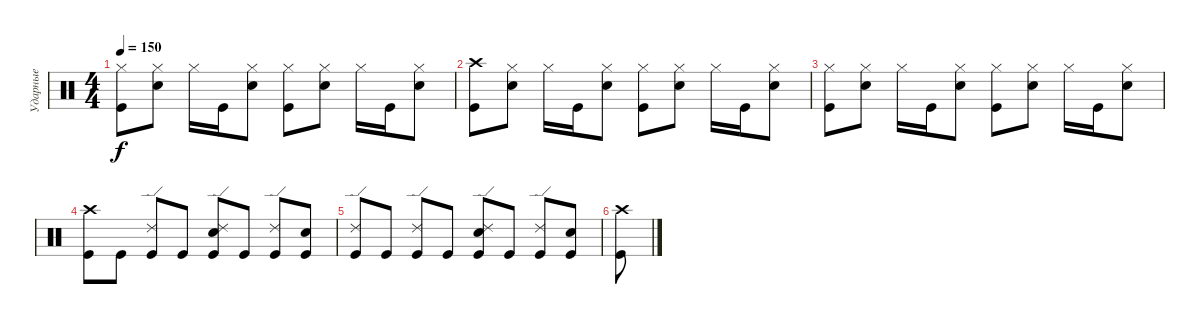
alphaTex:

\track ("Ударные" "Ударные") {instrument percussion}
\staff {score}
\articulation defaults
\ts (4 4)
\tempo 150
\clef neutral
\ks c
("Hi-Hat (closed)" "Kick (hit)").8{dy f} ("Hi-Hat (closed)" "Snare (hit) 2").8 "Hi-Hat (closed)".16 "Kick (hit)".16 ("Hi-Hat (closed)" "Snare (hit) 2").8 ("Hi-Hat (closed)" "Kick (hit)").8 ("Hi-Hat (closed)" "Snare (hit) 2").8 "Hi-Hat (closed)".16 "Kick (hit)".16 ("Hi-Hat (closed)" "Snare (hit) 2").8 |
("Crash high (hit)" "Kick (hit)").8 ("Hi-Hat (closed)" "Snare (hit) 2").8 "Hi-Hat (closed)".16 "Kick (hit)".16 ("Hi-Hat (closed)" "Snare (hit) 2").8 ("Hi-Hat (closed)" "Kick (hit)").8 ("Hi-Hat (closed)" "Snare (hit) 2").8 "Hi-Hat (closed)".16 "Kick (hit)".16 ("Hi-Hat (closed)" "Snare (hit) 2").8 |
("Hi-Hat (closed)" "Kick (hit)").8 ("Hi-Hat (closed)" "Snare (hit) 2").8 "Hi-Hat (closed)".16 "Kick (hit)".16 ("Hi-Hat (closed)" "Snare (hit) 2").8 ("Hi-Hat (closed)" "Kick (hit)").8 ("Hi-Hat (closed)" "Snare (hit) 2").8 "Hi-Hat (closed)".16 "Kick (hit)".16 ("Hi-Hat (closed)" "Snare (hit) 2").8 |
("Crash high (hit)" "Kick (hit)").8 "Kick (hit)".8 ("Ride (edge) 2" "Kick (hit)").8 "Kick (hit)".8 ("Ride (edge) 2" "Snare (hit) 2" "Kick (hit)").8 "Kick (hit)".8 ("Ride (edge) 2" "Kick (hit)").8 ("Snare (hit) 2" "Kick (hit)").8 |
("Ride (edge) 2" "Kick (hit)").8 "Kick (hit)".8 ("Ride (edge) 2" "Kick (hit)").8 "Kick (hit)".8 ("Ride (edge) 2" "Snare (hit) 2" "Kick (hit)").8 "Kick (hit)".8 ("Ride (edge) 2" "Kick (hit)").8 ("Snare (hit) 2" "Kick (hit)").8 |
("Crash high (hit)" "Kick (hit)").8
